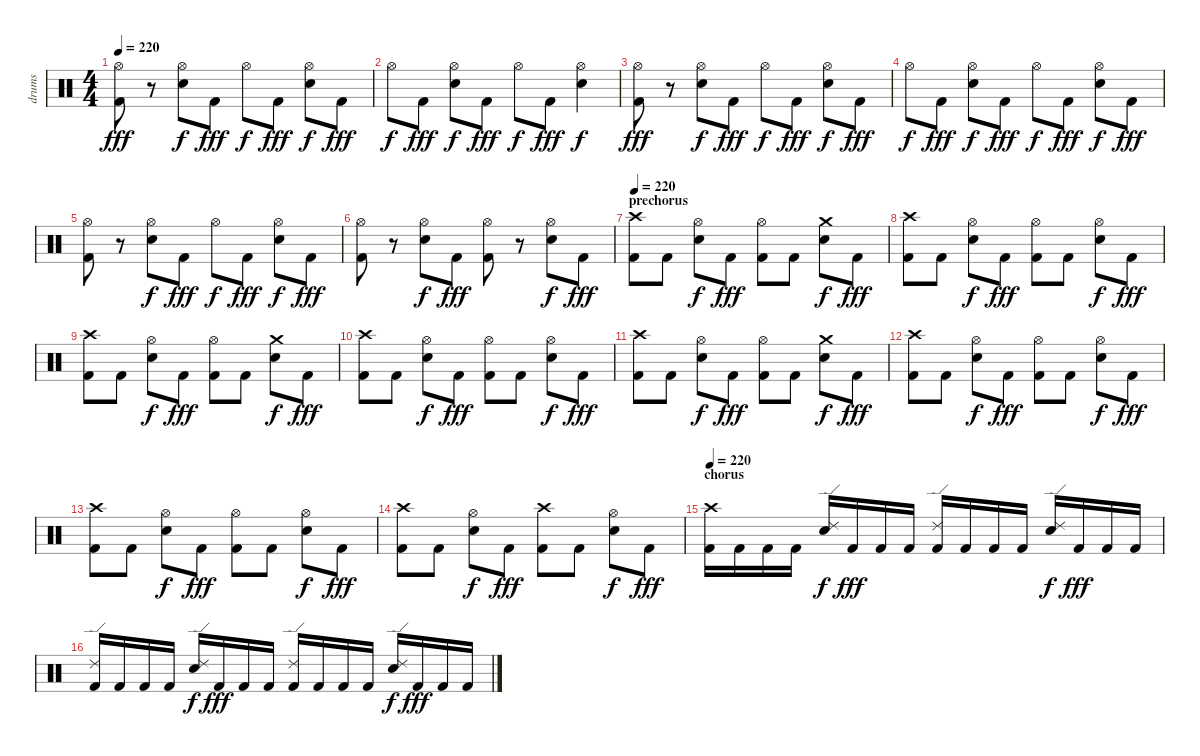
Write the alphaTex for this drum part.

\track ("drums" "drums") {instrument percussion}
\staff {score}
\articulation defaults
\ts (4 4)
\tempo 220
\clef neutral
\ks c
("Hi-Hat (open)" "Kick (hit) 2").8{dy fff} r.8 ("Hi-Hat (open)" "Snare (hit) 2").8{dy f} "Kick (hit) 2".8{dy fff} "Hi-Hat (open)".8{dy f} "Kick (hit) 2".8{dy fff} ("Hi-Hat (open)" "Snare (hit) 2").8{dy f} "Kick (hit) 2".8{dy fff} |
"Hi-Hat (open)".8{dy f} "Kick (hit) 2".8{dy fff} ("Hi-Hat (open)" "Snare (hit) 2").8{dy f} "Kick (hit) 2".8{dy fff} "Hi-Hat (open)".8{dy f} "Kick (hit) 2".8{dy fff} ("Hi-Hat (open)" "Snare (hit) 2").4{dy f} |
("Hi-Hat (open)" "Kick (hit) 2").8{dy fff} r.8 ("Hi-Hat (open)" "Snare (hit) 2").8{dy f} "Kick (hit) 2".8{dy fff} "Hi-Hat (open)".8{dy f} "Kick (hit) 2".8{dy fff} ("Hi-Hat (open)" "Snare (hit) 2").8{dy f} "Kick (hit) 2".8{dy fff} |
"Hi-Hat (open)".8{dy f} "Kick (hit) 2".8{dy fff} ("Hi-Hat (open)" "Snare (hit) 2").8{dy f} "Kick (hit) 2".8{dy fff} "Hi-Hat (open)".8{dy f} "Kick (hit) 2".8{dy fff} ("Hi-Hat (open)" "Snare (hit) 2").8{dy f} "Kick (hit) 2".8{dy fff} |
("Hi-Hat (open)" "Kick (hit) 2").8 r.8 ("Hi-Hat (open)" "Snare (hit) 2").8{dy f} "Kick (hit) 2".8{dy fff} "Hi-Hat (open)".8{dy f} "Kick (hit) 2".8{dy fff} ("Hi-Hat (open)" "Snare (hit) 2").8{dy f} "Kick (hit) 2".8{dy fff} |
("Hi-Hat (open)" "Kick (hit) 2").8 r.8 ("Hi-Hat (open)" "Snare (hit) 2").8{dy f} "Kick (hit) 2".8{dy fff} ("Hi-Hat (open)" "Kick (hit) 2").8 r.8 ("Hi-Hat (open)" "Snare (hit) 2").8{dy f} "Kick (hit) 2".8{dy fff} |
\section ("" "prechorus")
\tempo 220
("Crash high (hit)" "Kick (hit) 2").8 "Kick (hit) 2".8 ("Hi-Hat (open)" "Snare (hit) 2").8{dy f} "Kick (hit) 2".8{dy fff} ("Hi-Hat (open)" "Kick (hit) 2").8 "Kick (hit) 2".8 ("Crash medium (hit)" "Snare (hit) 2").8{dy f} "Kick (hit) 2".8{dy fff} |
("Crash high (hit)" "Kick (hit) 2").8 "Kick (hit) 2".8 ("Hi-Hat (open)" "Snare (hit) 2").8{dy f} "Kick (hit) 2".8{dy fff} ("Hi-Hat (open)" "Kick (hit) 2").8 "Kick (hit) 2".8 ("Hi-Hat (open)" "Snare (hit) 2").8{dy f} "Kick (hit) 2".8{dy fff} |
("Crash high (hit)" "Kick (hit) 2").8 "Kick (hit) 2".8 ("Hi-Hat (open)" "Snare (hit) 2").8{dy f} "Kick (hit) 2".8{dy fff} ("Hi-Hat (open)" "Kick (hit) 2").8 "Kick (hit) 2".8 ("Crash medium (hit)" "Snare (hit) 2").8{dy f} "Kick (hit) 2".8{dy fff} |
("Crash high (hit)" "Kick (hit) 2").8 "Kick (hit) 2".8 ("Hi-Hat (open)" "Snare (hit) 2").8{dy f} "Kick (hit) 2".8{dy fff} ("Hi-Hat (open)" "Kick (hit) 2").8 "Kick (hit) 2".8 ("Hi-Hat (open)" "Snare (hit) 2").8{dy f} "Kick (hit) 2".8{dy fff} |
("Crash high (hit)" "Kick (hit) 2").8 "Kick (hit) 2".8 ("Hi-Hat (open)" "Snare (hit) 2").8{dy f} "Kick (hit) 2".8{dy fff} ("Hi-Hat (open)" "Kick (hit) 2").8 "Kick (hit) 2".8 ("Crash medium (hit)" "Snare (hit) 2").8{dy f} "Kick (hit) 2".8{dy fff} |
("Crash high (hit)" "Kick (hit) 2").8 "Kick (hit) 2".8 ("Hi-Hat (open)" "Snare (hit) 2").8{dy f} "Kick (hit) 2".8{dy fff} ("Hi-Hat (open)" "Kick (hit) 2").8 "Kick (hit) 2".8 ("Hi-Hat (open)" "Snare (hit) 2").8{dy f} "Kick (hit) 2".8{dy fff} |
("Crash high (hit)" "Kick (hit) 2").8 "Kick (hit) 2".8 ("Hi-Hat (open)" "Snare (hit) 2").8{dy f} "Kick (hit) 2".8{dy fff} ("Hi-Hat (open)" "Kick (hit) 2").8 "Kick (hit) 2".8 ("Hi-Hat (open)" "Snare (hit) 2").8{dy f} "Kick (hit) 2".8{dy fff} |
("Crash high (hit)" "Kick (hit) 2").8 "Kick (hit) 2".8 ("Hi-Hat (open)" "Snare (hit) 2").8{dy f} "Kick (hit) 2".8{dy fff} ("Crash high (hit)" "Kick (hit) 2").8 "Kick (hit) 2".8 ("Hi-Hat (open)" "Snare (hit) 2").8{dy f} "Kick (hit) 2".8{dy fff} |
\section ("" "chorus")
\tempo 220
("Crash high (hit)" "Kick (hit) 2").16 "Kick (hit) 2".16 "Kick (hit) 2".16 "Kick (hit) 2".16 ("Ride (edge) 2" "Snare (hit) 2").16{dy f} "Kick (hit) 2".16{dy fff} "Kick (hit) 2".16 "Kick (hit) 2".16 ("Ride (edge) 2" "Kick (hit) 2").16 "Kick (hit) 2".16 "Kick (hit) 2".16 "Kick (hit) 2".16 ("Ride (edge) 2" "Snare (hit) 2").16{dy f} "Kick (hit) 2".16{dy fff} "Kick (hit) 2".16 "Kick (hit) 2".16 |
("Ride (edge) 2" "Kick (hit) 2").16 "Kick (hit) 2".16 "Kick (hit) 2".16 "Kick (hit) 2".16 ("Ride (edge) 2" "Snare (hit) 2").16{dy f} "Kick (hit) 2".16{dy fff} "Kick (hit) 2".16 "Kick (hit) 2".16 ("Ride (edge) 2" "Kick (hit) 2").16 "Kick (hit) 2".16 "Kick (hit) 2".16 "Kick (hit) 2".16 ("Ride (edge) 2" "Snare (hit) 2").16{dy f} "Kick (hit) 2".16{dy fff} "Kick (hit) 2".16 "Kick (hit) 2".16
